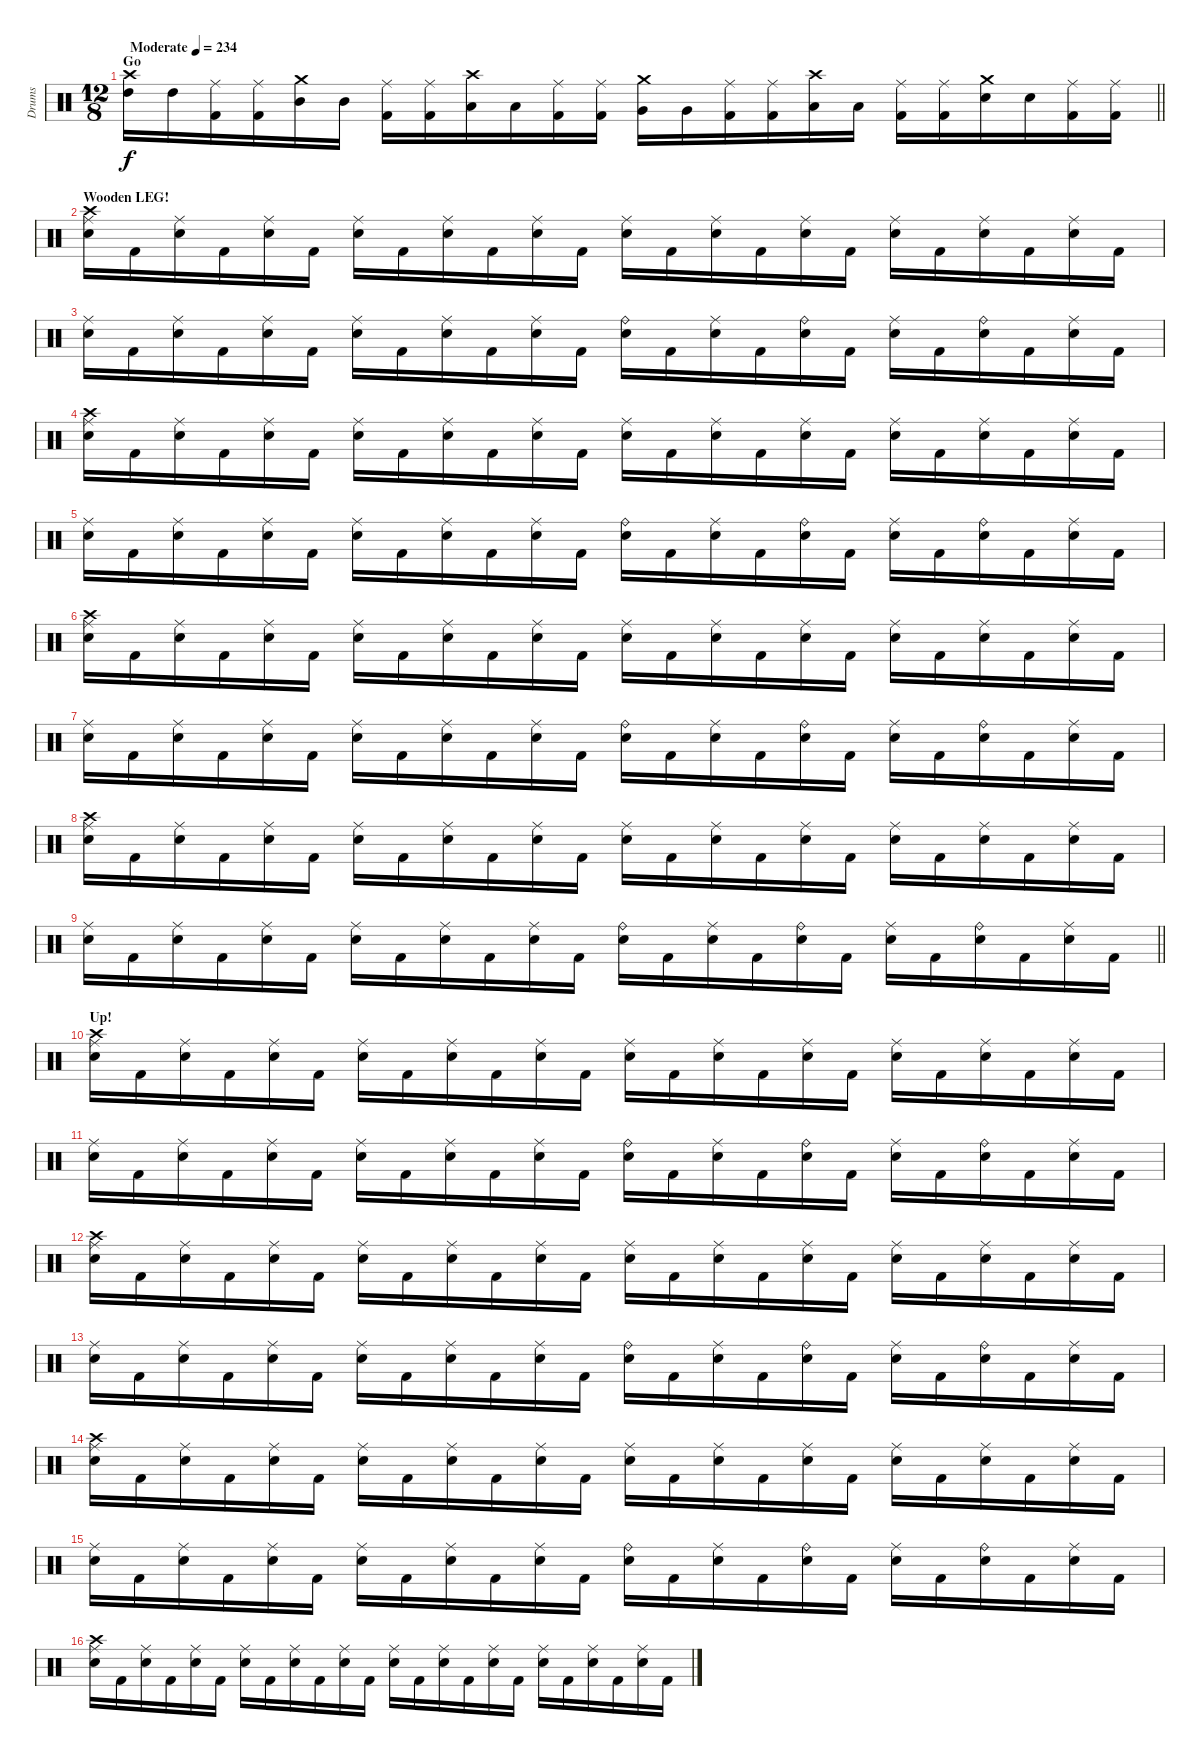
\track ("Drums" "Drums") {instrument percussion}
\staff {score}
\articulation defaults
\ts (12 8)
\section ("" "Go")
\tempo (234 "Moderate")
\clef neutral
\barLineRight lightlight
\ks c
("Crash high (hit)" "High Tom (hit)").16{dy f} "High Tom (hit)".16 ("Ride (middle)" "Kick (hit) 2").16 ("Ride (middle)" "Kick (hit) 2").16 ("Crash medium (hit)" "Mid Tom (hit)").16 "Mid Tom (hit)".16 ("Ride (middle)" "Kick (hit) 2").16 ("Ride (middle)" "Kick (hit) 2").16 ("Crash high (hit)" "Low Tom (hit)").16 "Low Tom (hit)".16 ("Ride (middle)" "Kick (hit) 2").16 ("Ride (middle)" "Kick (hit) 2").16 ("Crash medium (hit)" "Very Low Tom (hit)").16 "Very Low Tom (hit)".16 ("Ride (middle)" "Kick (hit) 2").16 ("Ride (middle)" "Kick (hit) 2").16 ("Crash high (hit)" "Low Floor Tom (hit)").16 "Low Floor Tom (hit)".16 ("Ride (middle)" "Kick (hit) 2").16 ("Ride (middle)" "Kick (hit) 2").16 ("Crash medium (hit)" "Snare (hit) 2").16 "Snare (hit) 2".16 ("Ride (middle)" "Kick (hit) 2").16 ("Ride (middle)" "Kick (hit) 2").16 |
\section ("" "Wooden LEG!")
("Crash high (hit)" "Ride (middle)" "Snare (hit) 2").16 "Kick (hit) 2".16 ("Ride (middle)" "Snare (hit) 2").16 "Kick (hit) 2".16 ("Ride (middle)" "Snare (hit) 2").16 "Kick (hit) 2".16 ("Ride (middle)" "Snare (hit) 2").16 "Kick (hit) 2".16 ("Ride (middle)" "Snare (hit) 2").16 "Kick (hit) 2".16 ("Ride (middle)" "Snare (hit) 2").16 "Kick (hit) 2".16 ("Ride (middle)" "Snare (hit) 2").16 "Kick (hit) 2".16 ("Ride (middle)" "Snare (hit) 2").16 "Kick (hit) 2".16 ("Ride (middle)" "Snare (hit) 2").16 "Kick (hit) 2".16 ("Ride (middle)" "Snare (hit) 2").16 "Kick (hit) 2".16 ("Ride (middle)" "Snare (hit) 2").16 "Kick (hit) 2".16 ("Ride (middle)" "Snare (hit) 2").16 "Kick (hit) 2".16 |
("Ride (middle)" "Snare (hit) 2").16 "Kick (hit) 2".16 ("Ride (middle)" "Snare (hit) 2").16 "Kick (hit) 2".16 ("Ride (middle)" "Snare (hit) 2").16 "Kick (hit) 2".16 ("Ride (middle)" "Snare (hit) 2").16 "Kick (hit) 2".16 ("Ride (middle)" "Snare (hit) 2").16 "Kick (hit) 2".16 ("Ride (middle)" "Snare (hit) 2").16 "Kick (hit) 2".16 ("Ride (bell)" "Snare (hit) 2").16 "Kick (hit) 2".16 ("Ride (middle)" "Snare (hit) 2").16 "Kick (hit) 2".16 ("Ride (bell)" "Snare (hit) 2").16 "Kick (hit) 2".16 ("Ride (middle)" "Snare (hit) 2").16 "Kick (hit) 2".16 ("Ride (bell)" "Snare (hit) 2").16 "Kick (hit) 2".16 ("Ride (middle)" "Snare (hit) 2").16 "Kick (hit) 2".16 |
("Crash high (hit)" "Ride (middle)" "Snare (hit) 2").16 "Kick (hit) 2".16 ("Ride (middle)" "Snare (hit) 2").16 "Kick (hit) 2".16 ("Ride (middle)" "Snare (hit) 2").16 "Kick (hit) 2".16 ("Ride (middle)" "Snare (hit) 2").16 "Kick (hit) 2".16 ("Ride (middle)" "Snare (hit) 2").16 "Kick (hit) 2".16 ("Ride (middle)" "Snare (hit) 2").16 "Kick (hit) 2".16 ("Ride (middle)" "Snare (hit) 2").16 "Kick (hit) 2".16 ("Ride (middle)" "Snare (hit) 2").16 "Kick (hit) 2".16 ("Ride (middle)" "Snare (hit) 2").16 "Kick (hit) 2".16 ("Ride (middle)" "Snare (hit) 2").16 "Kick (hit) 2".16 ("Ride (middle)" "Snare (hit) 2").16 "Kick (hit) 2".16 ("Ride (middle)" "Snare (hit) 2").16 "Kick (hit) 2".16 |
("Ride (middle)" "Snare (hit) 2").16 "Kick (hit) 2".16 ("Ride (middle)" "Snare (hit) 2").16 "Kick (hit) 2".16 ("Ride (middle)" "Snare (hit) 2").16 "Kick (hit) 2".16 ("Ride (middle)" "Snare (hit) 2").16 "Kick (hit) 2".16 ("Ride (middle)" "Snare (hit) 2").16 "Kick (hit) 2".16 ("Ride (middle)" "Snare (hit) 2").16 "Kick (hit) 2".16 ("Ride (bell)" "Snare (hit) 2").16 "Kick (hit) 2".16 ("Ride (middle)" "Snare (hit) 2").16 "Kick (hit) 2".16 ("Ride (bell)" "Snare (hit) 2").16 "Kick (hit) 2".16 ("Ride (middle)" "Snare (hit) 2").16 "Kick (hit) 2".16 ("Ride (bell)" "Snare (hit) 2").16 "Kick (hit) 2".16 ("Ride (middle)" "Snare (hit) 2").16 "Kick (hit) 2".16 |
("Crash high (hit)" "Ride (middle)" "Snare (hit) 2").16 "Kick (hit) 2".16 ("Ride (middle)" "Snare (hit) 2").16 "Kick (hit) 2".16 ("Ride (middle)" "Snare (hit) 2").16 "Kick (hit) 2".16 ("Ride (middle)" "Snare (hit) 2").16 "Kick (hit) 2".16 ("Ride (middle)" "Snare (hit) 2").16 "Kick (hit) 2".16 ("Ride (middle)" "Snare (hit) 2").16 "Kick (hit) 2".16 ("Ride (middle)" "Snare (hit) 2").16 "Kick (hit) 2".16 ("Ride (middle)" "Snare (hit) 2").16 "Kick (hit) 2".16 ("Ride (middle)" "Snare (hit) 2").16 "Kick (hit) 2".16 ("Ride (middle)" "Snare (hit) 2").16 "Kick (hit) 2".16 ("Ride (middle)" "Snare (hit) 2").16 "Kick (hit) 2".16 ("Ride (middle)" "Snare (hit) 2").16 "Kick (hit) 2".16 |
("Ride (middle)" "Snare (hit) 2").16 "Kick (hit) 2".16 ("Ride (middle)" "Snare (hit) 2").16 "Kick (hit) 2".16 ("Ride (middle)" "Snare (hit) 2").16 "Kick (hit) 2".16 ("Ride (middle)" "Snare (hit) 2").16 "Kick (hit) 2".16 ("Ride (middle)" "Snare (hit) 2").16 "Kick (hit) 2".16 ("Ride (middle)" "Snare (hit) 2").16 "Kick (hit) 2".16 ("Ride (bell)" "Snare (hit) 2").16 "Kick (hit) 2".16 ("Ride (middle)" "Snare (hit) 2").16 "Kick (hit) 2".16 ("Ride (bell)" "Snare (hit) 2").16 "Kick (hit) 2".16 ("Ride (middle)" "Snare (hit) 2").16 "Kick (hit) 2".16 ("Ride (bell)" "Snare (hit) 2").16 "Kick (hit) 2".16 ("Ride (middle)" "Snare (hit) 2").16 "Kick (hit) 2".16 |
("Crash high (hit)" "Ride (middle)" "Snare (hit) 2").16 "Kick (hit) 2".16 ("Ride (middle)" "Snare (hit) 2").16 "Kick (hit) 2".16 ("Ride (middle)" "Snare (hit) 2").16 "Kick (hit) 2".16 ("Ride (middle)" "Snare (hit) 2").16 "Kick (hit) 2".16 ("Ride (middle)" "Snare (hit) 2").16 "Kick (hit) 2".16 ("Ride (middle)" "Snare (hit) 2").16 "Kick (hit) 2".16 ("Ride (middle)" "Snare (hit) 2").16 "Kick (hit) 2".16 ("Ride (middle)" "Snare (hit) 2").16 "Kick (hit) 2".16 ("Ride (middle)" "Snare (hit) 2").16 "Kick (hit) 2".16 ("Ride (middle)" "Snare (hit) 2").16 "Kick (hit) 2".16 ("Ride (middle)" "Snare (hit) 2").16 "Kick (hit) 2".16 ("Ride (middle)" "Snare (hit) 2").16 "Kick (hit) 2".16 |
\barLineRight lightlight
("Ride (middle)" "Snare (hit) 2").16 "Kick (hit) 2".16 ("Ride (middle)" "Snare (hit) 2").16 "Kick (hit) 2".16 ("Ride (middle)" "Snare (hit) 2").16 "Kick (hit) 2".16 ("Ride (middle)" "Snare (hit) 2").16 "Kick (hit) 2".16 ("Ride (middle)" "Snare (hit) 2").16 "Kick (hit) 2".16 ("Ride (middle)" "Snare (hit) 2").16 "Kick (hit) 2".16 ("Ride (bell)" "Snare (hit) 2").16 "Kick (hit) 2".16 ("Ride (middle)" "Snare (hit) 2").16 "Kick (hit) 2".16 ("Ride (bell)" "Snare (hit) 2").16 "Kick (hit) 2".16 ("Ride (middle)" "Snare (hit) 2").16 "Kick (hit) 2".16 ("Ride (bell)" "Snare (hit) 2").16 "Kick (hit) 2".16 ("Ride (middle)" "Snare (hit) 2").16 "Kick (hit) 2".16 |
\section ("" "Up!")
("Crash high (hit)" "Ride (middle)" "Snare (hit) 2").16 "Kick (hit) 2".16 ("Ride (middle)" "Snare (hit) 2").16 "Kick (hit) 2".16 ("Ride (middle)" "Snare (hit) 2").16 "Kick (hit) 2".16 ("Ride (middle)" "Snare (hit) 2").16 "Kick (hit) 2".16 ("Ride (middle)" "Snare (hit) 2").16 "Kick (hit) 2".16 ("Ride (middle)" "Snare (hit) 2").16 "Kick (hit) 2".16 ("Ride (middle)" "Snare (hit) 2").16 "Kick (hit) 2".16 ("Ride (middle)" "Snare (hit) 2").16 "Kick (hit) 2".16 ("Ride (middle)" "Snare (hit) 2").16 "Kick (hit) 2".16 ("Ride (middle)" "Snare (hit) 2").16 "Kick (hit) 2".16 ("Ride (middle)" "Snare (hit) 2").16 "Kick (hit) 2".16 ("Ride (middle)" "Snare (hit) 2").16 "Kick (hit) 2".16 |
("Ride (middle)" "Snare (hit) 2").16 "Kick (hit) 2".16 ("Ride (middle)" "Snare (hit) 2").16 "Kick (hit) 2".16 ("Ride (middle)" "Snare (hit) 2").16 "Kick (hit) 2".16 ("Ride (middle)" "Snare (hit) 2").16 "Kick (hit) 2".16 ("Ride (middle)" "Snare (hit) 2").16 "Kick (hit) 2".16 ("Ride (middle)" "Snare (hit) 2").16 "Kick (hit) 2".16 ("Ride (bell)" "Snare (hit) 2").16 "Kick (hit) 2".16 ("Ride (middle)" "Snare (hit) 2").16 "Kick (hit) 2".16 ("Ride (bell)" "Snare (hit) 2").16 "Kick (hit) 2".16 ("Ride (middle)" "Snare (hit) 2").16 "Kick (hit) 2".16 ("Ride (bell)" "Snare (hit) 2").16 "Kick (hit) 2".16 ("Ride (middle)" "Snare (hit) 2").16 "Kick (hit) 2".16 |
("Crash high (hit)" "Ride (middle)" "Snare (hit) 2").16 "Kick (hit) 2".16 ("Ride (middle)" "Snare (hit) 2").16 "Kick (hit) 2".16 ("Ride (middle)" "Snare (hit) 2").16 "Kick (hit) 2".16 ("Ride (middle)" "Snare (hit) 2").16 "Kick (hit) 2".16 ("Ride (middle)" "Snare (hit) 2").16 "Kick (hit) 2".16 ("Ride (middle)" "Snare (hit) 2").16 "Kick (hit) 2".16 ("Ride (middle)" "Snare (hit) 2").16 "Kick (hit) 2".16 ("Ride (middle)" "Snare (hit) 2").16 "Kick (hit) 2".16 ("Ride (middle)" "Snare (hit) 2").16 "Kick (hit) 2".16 ("Ride (middle)" "Snare (hit) 2").16 "Kick (hit) 2".16 ("Ride (middle)" "Snare (hit) 2").16 "Kick (hit) 2".16 ("Ride (middle)" "Snare (hit) 2").16 "Kick (hit) 2".16 |
("Ride (middle)" "Snare (hit) 2").16 "Kick (hit) 2".16 ("Ride (middle)" "Snare (hit) 2").16 "Kick (hit) 2".16 ("Ride (middle)" "Snare (hit) 2").16 "Kick (hit) 2".16 ("Ride (middle)" "Snare (hit) 2").16 "Kick (hit) 2".16 ("Ride (middle)" "Snare (hit) 2").16 "Kick (hit) 2".16 ("Ride (middle)" "Snare (hit) 2").16 "Kick (hit) 2".16 ("Ride (bell)" "Snare (hit) 2").16 "Kick (hit) 2".16 ("Ride (middle)" "Snare (hit) 2").16 "Kick (hit) 2".16 ("Ride (bell)" "Snare (hit) 2").16 "Kick (hit) 2".16 ("Ride (middle)" "Snare (hit) 2").16 "Kick (hit) 2".16 ("Ride (bell)" "Snare (hit) 2").16 "Kick (hit) 2".16 ("Ride (middle)" "Snare (hit) 2").16 "Kick (hit) 2".16 |
("Crash high (hit)" "Ride (middle)" "Snare (hit) 2").16 "Kick (hit) 2".16 ("Ride (middle)" "Snare (hit) 2").16 "Kick (hit) 2".16 ("Ride (middle)" "Snare (hit) 2").16 "Kick (hit) 2".16 ("Ride (middle)" "Snare (hit) 2").16 "Kick (hit) 2".16 ("Ride (middle)" "Snare (hit) 2").16 "Kick (hit) 2".16 ("Ride (middle)" "Snare (hit) 2").16 "Kick (hit) 2".16 ("Ride (middle)" "Snare (hit) 2").16 "Kick (hit) 2".16 ("Ride (middle)" "Snare (hit) 2").16 "Kick (hit) 2".16 ("Ride (middle)" "Snare (hit) 2").16 "Kick (hit) 2".16 ("Ride (middle)" "Snare (hit) 2").16 "Kick (hit) 2".16 ("Ride (middle)" "Snare (hit) 2").16 "Kick (hit) 2".16 ("Ride (middle)" "Snare (hit) 2").16 "Kick (hit) 2".16 |
("Ride (middle)" "Snare (hit) 2").16 "Kick (hit) 2".16 ("Ride (middle)" "Snare (hit) 2").16 "Kick (hit) 2".16 ("Ride (middle)" "Snare (hit) 2").16 "Kick (hit) 2".16 ("Ride (middle)" "Snare (hit) 2").16 "Kick (hit) 2".16 ("Ride (middle)" "Snare (hit) 2").16 "Kick (hit) 2".16 ("Ride (middle)" "Snare (hit) 2").16 "Kick (hit) 2".16 ("Ride (bell)" "Snare (hit) 2").16 "Kick (hit) 2".16 ("Ride (middle)" "Snare (hit) 2").16 "Kick (hit) 2".16 ("Ride (bell)" "Snare (hit) 2").16 "Kick (hit) 2".16 ("Ride (middle)" "Snare (hit) 2").16 "Kick (hit) 2".16 ("Ride (bell)" "Snare (hit) 2").16 "Kick (hit) 2".16 ("Ride (middle)" "Snare (hit) 2").16 "Kick (hit) 2".16 |
("Crash high (hit)" "Ride (middle)" "Snare (hit) 2").16 "Kick (hit) 2".16 ("Ride (middle)" "Snare (hit) 2").16 "Kick (hit) 2".16 ("Ride (middle)" "Snare (hit) 2").16 "Kick (hit) 2".16 ("Ride (middle)" "Snare (hit) 2").16 "Kick (hit) 2".16 ("Ride (middle)" "Snare (hit) 2").16 "Kick (hit) 2".16 ("Ride (middle)" "Snare (hit) 2").16 "Kick (hit) 2".16 ("Ride (middle)" "Snare (hit) 2").16 "Kick (hit) 2".16 ("Ride (middle)" "Snare (hit) 2").16 "Kick (hit) 2".16 ("Ride (middle)" "Snare (hit) 2").16 "Kick (hit) 2".16 ("Ride (middle)" "Snare (hit) 2").16 "Kick (hit) 2".16 ("Ride (middle)" "Snare (hit) 2").16 "Kick (hit) 2".16 ("Ride (middle)" "Snare (hit) 2").16 "Kick (hit) 2".16
